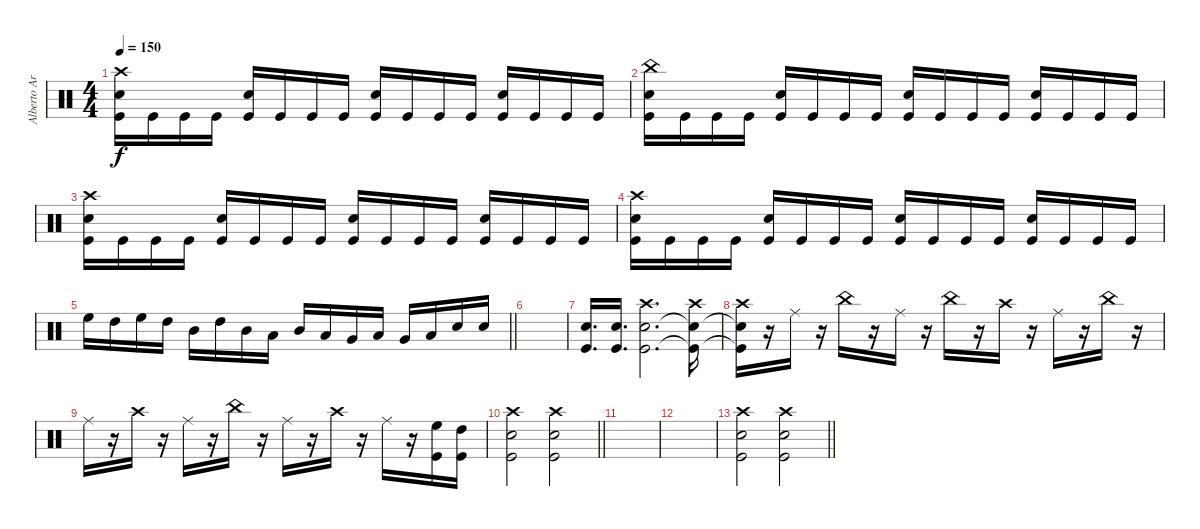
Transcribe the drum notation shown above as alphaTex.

\track ("Alberto Ardines" "Alberto Ar") {instrument percussion}
\staff {score}
\articulation defaults
\ts (4 4)
\tempo 150
\clef neutral
\ks c
("Crash high (hit)" "Kick (hit)" "Snare (hit) 2").16{dy f} "Kick (hit)".16 "Kick (hit)".16 "Kick (hit)".16 ("Kick (hit)" "Snare (hit) 2").16 "Kick (hit)".16 "Kick (hit)".16 "Kick (hit)".16 ("Kick (hit)" "Snare (hit) 2").16 "Kick (hit)".16 "Kick (hit)".16 "Kick (hit)".16 ("Kick (hit)" "Snare (hit) 2").16 "Kick (hit)".16 "Kick (hit)".16 "Kick (hit)".16 |
("China (hit)" "Kick (hit)" "Snare (hit) 2").16 "Kick (hit)".16 "Kick (hit)".16 "Kick (hit)".16 ("Kick (hit)" "Snare (hit) 2").16 "Kick (hit)".16 "Kick (hit)".16 "Kick (hit)".16 ("Kick (hit)" "Snare (hit) 2").16 "Kick (hit)".16 "Kick (hit)".16 "Kick (hit)".16 ("Kick (hit)" "Snare (hit) 2").16 "Kick (hit)".16 "Kick (hit)".16 "Kick (hit)".16 |
("Crash high (hit)" "Kick (hit)" "Snare (hit) 2").16 "Kick (hit)".16 "Kick (hit)".16 "Kick (hit)".16 ("Kick (hit)" "Snare (hit) 2").16 "Kick (hit)".16 "Kick (hit)".16 "Kick (hit)".16 ("Kick (hit)" "Snare (hit) 2").16 "Kick (hit)".16 "Kick (hit)".16 "Kick (hit)".16 ("Kick (hit)" "Snare (hit) 2").16 "Kick (hit)".16 "Kick (hit)".16 "Kick (hit)".16 |
("Crash high (hit)" "Kick (hit)" "Snare (hit) 2").16 "Kick (hit)".16 "Kick (hit)".16 "Kick (hit)".16 ("Kick (hit)" "Snare (hit) 2").16 "Kick (hit)".16 "Kick (hit)".16 "Kick (hit)".16 ("Kick (hit)" "Snare (hit) 2").16 "Kick (hit)".16 "Kick (hit)".16 "Kick (hit)".16 ("Kick (hit)" "Snare (hit) 2").16 "Kick (hit)".16 "Kick (hit)".16 "Kick (hit)".16 |
\barLineRight lightlight "High Floor Tom (hit)".16 "High Tom (hit)".16 "High Floor Tom (hit)".16 "High Tom (hit)".16 "Mid Tom (hit)".16 "High Tom (hit)".16 "Mid Tom (hit)".16 "Low Tom (hit)".16 "Mid Tom (hit)".16 "Low Tom (hit)".16 "Very Low Tom (hit)".16 "Low Tom (hit)".16 "Very Low Tom (hit)".16 "Low Floor Tom (hit)".16 "Snare (hit) 2".16 "Snare (hit) 2".16
|
|
("Snare (hit) 2" "Kick (hit)").16{d} ("Snare (hit) 2" "Kick (hit)").16{d} ("Crash high (hit)" "Snare (hit) 2" "Kick (hit)").2{d} ("Crash high (hit)" "Snare (hit) 2"{t} "Kick (hit)"{t}).16 |
("Crash high (hit)" "Snare (hit) 2"{t} "Kick (hit)"{t}).16 r.16 "Ride (middle)".16 r.16 "China (hit)".16 r.16 "Ride (middle)".16 r.16 "China (hit)".16 r.16 "Crash high (hit)".16 r.16 "Ride (middle)".16 r.16 "China (hit)".16 r.16 |
"Ride (middle)".16 r.16 "Crash high (hit)".16 r.16 "Ride (middle)".16 r.16 "China (hit)".16 r.16 "Ride (middle)".16 r.16 "Crash high (hit)".16 r.16 "Ride (middle)".16 r.16 ("High Floor Tom (hit)" "Kick (hit)").16 ("High Tom (hit)" "Kick (hit)").16 |
\barLineRight lightlight
("Crash high (hit)" "Snare (hit) 2" "Kick (hit)").2 ("Crash high (hit)" "Snare (hit) 2" "Kick (hit)").2 |
|
|
\barLineRight lightlight
("Crash high (hit)" "Snare (hit) 2" "Kick (hit)").2 ("Crash high (hit)" "Snare (hit) 2" "Kick (hit)").2
